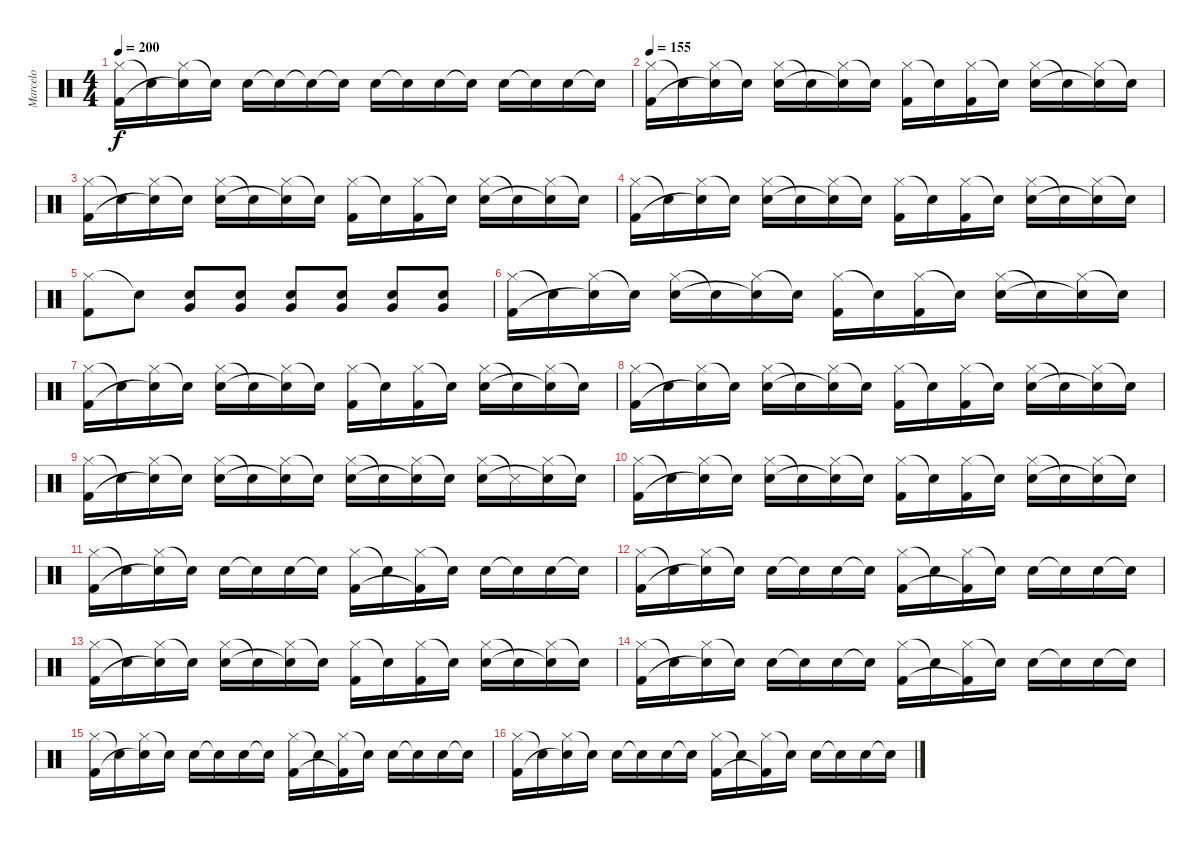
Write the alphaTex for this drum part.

\track ("Marcelo" "Marcelo") {instrument percussion}
\staff {score}
\articulation defaults
\ts (4 4)
\tempo 200
\clef neutral
\ks c
("Hi-Hat (closed)" "Kick (hit) 2").16{dy f} "Snare (hit)"{t}.16 ("Hi-Hat (closed)" "Snare (hit)"{t}).16 "Snare (hit) 2"{t}.16 "Snare (hit) 2".16 "Snare (hit)"{t}.16 "Snare (hit)"{t}.16 "Snare (hit)"{t}.16 "Snare (hit) 2".16 "Snare (hit)"{t}.16 "Snare (hit) 2".16 "Snare (hit) 2"{t}.16 "Snare (hit) 2".16 "Snare (hit)"{t}.16 "Snare (hit) 2".16 "Snare (hit)"{t}.16 |
\tempo 155
("Hi-Hat (closed)" "Kick (hit) 2").16 "Snare (hit)"{t}.16 ("Hi-Hat (closed)" "Snare (hit)"{t}).16 "Snare (hit) 2"{t}.16 ("Hi-Hat (closed)" "Snare (hit) 2").16 "Snare (hit)"{t}.16 ("Hi-Hat (closed)" "Snare (hit)"{t}).16 "Snare (hit)"{t}.16 ("Hi-Hat (closed)" "Kick (hit) 2").16 "Snare (hit)"{t}.16 ("Hi-Hat (closed)" "Kick (hit) 2").16 "Snare (hit) 2"{t}.16 ("Hi-Hat (closed)" "Snare (hit) 2").16 "Snare (hit)"{t}.16 ("Hi-Hat (closed)" "Snare (hit)"{t}).16 "Snare (hit)"{t}.16 |
("Hi-Hat (closed)" "Kick (hit) 2").16 "Snare (hit)"{t}.16 ("Hi-Hat (closed)" "Snare (hit)"{t}).16 "Snare (hit) 2"{t}.16 ("Hi-Hat (closed)" "Snare (hit) 2").16 "Snare (hit)"{t}.16 ("Hi-Hat (closed)" "Snare (hit)"{t}).16 "Snare (hit)"{t}.16 ("Hi-Hat (closed)" "Kick (hit) 2").16 "Snare (hit)"{t}.16 ("Hi-Hat (closed)" "Kick (hit) 2").16 "Snare (hit) 2"{t}.16 ("Hi-Hat (closed)" "Snare (hit) 2").16 "Snare (hit)"{t}.16 ("Hi-Hat (closed)" "Snare (hit)"{t}).16 "Snare (hit)"{t}.16 |
("Hi-Hat (closed)" "Kick (hit) 2").16 "Snare (hit)"{t}.16 ("Hi-Hat (closed)" "Snare (hit)"{t}).16 "Snare (hit) 2"{t}.16 ("Hi-Hat (closed)" "Snare (hit) 2").16 "Snare (hit)"{t}.16 ("Hi-Hat (closed)" "Snare (hit)"{t}).16 "Snare (hit)"{t}.16 ("Hi-Hat (closed)" "Kick (hit) 2").16 "Snare (hit)"{t}.16 ("Hi-Hat (closed)" "Kick (hit) 2").16 "Snare (hit) 2"{t}.16 ("Hi-Hat (closed)" "Snare (hit) 2").16 "Snare (hit)"{t}.16 ("Hi-Hat (closed)" "Snare (hit)"{t}).16 "Snare (hit)"{t}.16 |
("Hi-Hat (closed)" "Kick (hit) 2").8 "Snare (hit)"{t}.8 ("Very Low Tom (hit)" "Snare (hit) 2").8 ("Very Low Tom (hit)" "Snare (hit) 2").8 ("Very Low Tom (hit)" "Snare (hit) 2").8 ("Very Low Tom (hit)" "Snare (hit) 2").8 ("Very Low Tom (hit)" "Snare (hit) 2").8 ("Very Low Tom (hit)" "Snare (hit) 2").8 |
("Hi-Hat (closed)" "Kick (hit) 2").16 "Snare (hit)"{t}.16 ("Hi-Hat (closed)" "Snare (hit)"{t}).16 "Snare (hit) 2"{t}.16 ("Hi-Hat (closed)" "Snare (hit) 2").16 "Snare (hit)"{t}.16 ("Hi-Hat (closed)" "Snare (hit)"{t}).16 "Snare (hit)"{t}.16 ("Hi-Hat (closed)" "Kick (hit) 2").16 "Snare (hit)"{t}.16 ("Hi-Hat (closed)" "Kick (hit) 2").16 "Snare (hit) 2"{t}.16 ("Hi-Hat (closed)" "Snare (hit) 2").16 "Snare (hit)"{t}.16 ("Hi-Hat (closed)" "Snare (hit)"{t}).16 "Snare (hit)"{t}.16 |
("Hi-Hat (closed)" "Kick (hit) 2").16 "Snare (hit)"{t}.16 ("Hi-Hat (closed)" "Snare (hit)"{t}).16 "Snare (hit) 2"{t}.16 ("Hi-Hat (closed)" "Snare (hit) 2").16 "Snare (hit)"{t}.16 ("Hi-Hat (closed)" "Snare (hit)"{t}).16 "Snare (hit)"{t}.16 ("Hi-Hat (closed)" "Kick (hit) 2").16 "Snare (hit)"{t}.16 ("Hi-Hat (closed)" "Kick (hit) 2").16 "Snare (hit) 2"{t}.16 ("Hi-Hat (closed)" "Snare (hit) 2").16 "Snare (hit)"{t}.16 ("Hi-Hat (closed)" "Snare (hit)"{t}).16 "Snare (hit)"{t}.16 |
("Hi-Hat (closed)" "Kick (hit) 2").16 "Snare (hit)"{t}.16 ("Hi-Hat (closed)" "Snare (hit)"{t}).16 "Snare (hit) 2"{t}.16 ("Hi-Hat (closed)" "Snare (hit) 2").16 "Snare (hit)"{t}.16 ("Hi-Hat (closed)" "Snare (hit)"{t}).16 "Snare (hit)"{t}.16 ("Hi-Hat (closed)" "Kick (hit) 2").16 "Snare (hit)"{t}.16 ("Hi-Hat (closed)" "Kick (hit) 2").16 "Snare (hit) 2"{t}.16 ("Hi-Hat (closed)" "Snare (hit) 2").16 "Snare (hit)"{t}.16 ("Hi-Hat (closed)" "Snare (hit)"{t}).16 "Snare (hit)"{t}.16 |
("Hi-Hat (closed)" "Kick (hit) 2").16 "Snare (hit)"{t}.16 ("Hi-Hat (closed)" "Snare (hit)"{t}).16 "Snare (hit) 2"{t}.16 ("Hi-Hat (closed)" "Snare (hit) 2").16 "Snare (hit)"{t}.16 ("Hi-Hat (closed)" "Snare (hit)"{t}).16 "Snare (hit)"{t}.16 ("Hi-Hat (closed)" "Snare (hit) 2").16 "Snare (hit)"{t}.16 ("Hi-Hat (closed)" "Snare (hit) 2"{t}).16 "Snare (hit) 2"{t}.16 ("Hi-Hat (closed)" "Snare (hit) 2").16 "Metronome (hit)"{t}.16 ("Hi-Hat (closed)" "Snare (hit) 2"{t}).16 "Snare (hit)"{t}.16 |
("Hi-Hat (closed)" "Kick (hit) 2").16 "Snare (hit)"{t}.16 ("Hi-Hat (closed)" "Snare (hit)"{t}).16 "Snare (hit) 2"{t}.16 ("Hi-Hat (closed)" "Snare (hit) 2").16 "Snare (hit)"{t}.16 ("Hi-Hat (closed)" "Snare (hit)"{t}).16 "Snare (hit)"{t}.16 ("Hi-Hat (closed)" "Kick (hit) 2").16 "Snare (hit)"{t}.16 ("Hi-Hat (closed)" "Kick (hit) 2").16 "Snare (hit) 2"{t}.16 ("Hi-Hat (closed)" "Snare (hit) 2").16 "Snare (hit)"{t}.16 ("Hi-Hat (closed)" "Snare (hit)"{t}).16 "Snare (hit)"{t}.16 |
("Hi-Hat (closed)" "Kick (hit) 2").16 "Snare (hit)"{t}.16 ("Hi-Hat (closed)" "Snare (hit)"{t}).16 "Snare (hit) 2"{t}.16 "Snare (hit) 2".16 "Snare (hit)"{t}.16 "Snare (hit) 2".16 "Snare (hit)"{t}.16 ("Hi-Hat (closed)" "Kick (hit) 2").16 "Snare (hit)"{t}.16 ("Hi-Hat (closed)" "Kick (hit) 2"{t}).16 "Snare (hit) 2"{t}.16 "Snare (hit) 2".16 "Snare (hit)"{t}.16 "Snare (hit) 2".16 "Snare (hit)"{t}.16 |
("Hi-Hat (closed)" "Kick (hit) 2").16 "Snare (hit)"{t}.16 ("Hi-Hat (closed)" "Snare (hit)"{t}).16 "Snare (hit) 2"{t}.16 "Snare (hit) 2".16 "Snare (hit)"{t}.16 "Snare (hit) 2".16 "Snare (hit)"{t}.16 ("Hi-Hat (closed)" "Kick (hit) 2").16 "Snare (hit)"{t}.16 ("Hi-Hat (closed)" "Kick (hit) 2"{t}).16 "Snare (hit) 2"{t}.16 "Snare (hit) 2".16 "Snare (hit)"{t}.16 "Snare (hit) 2".16 "Snare (hit)"{t}.16 |
("Hi-Hat (closed)" "Kick (hit) 2").16 "Snare (hit)"{t}.16 ("Hi-Hat (closed)" "Snare (hit)"{t}).16 "Snare (hit) 2"{t}.16 ("Hi-Hat (closed)" "Snare (hit) 2").16 "Snare (hit)"{t}.16 ("Hi-Hat (closed)" "Snare (hit)"{t}).16 "Snare (hit)"{t}.16 ("Hi-Hat (closed)" "Kick (hit) 2").16 "Snare (hit)"{t}.16 ("Hi-Hat (closed)" "Kick (hit) 2").16 "Snare (hit) 2"{t}.16 ("Hi-Hat (closed)" "Snare (hit) 2").16 "Snare (hit)"{t}.16 ("Hi-Hat (closed)" "Snare (hit)"{t}).16 "Snare (hit)"{t}.16 |
("Hi-Hat (closed)" "Kick (hit) 2").16 "Snare (hit)"{t}.16 ("Hi-Hat (closed)" "Snare (hit)"{t}).16 "Snare (hit) 2"{t}.16 "Snare (hit) 2".16 "Snare (hit)"{t}.16 "Snare (hit) 2".16 "Snare (hit)"{t}.16 ("Hi-Hat (closed)" "Kick (hit) 2").16 "Snare (hit)"{t}.16 ("Hi-Hat (closed)" "Kick (hit) 2"{t}).16 "Snare (hit) 2"{t}.16 "Snare (hit) 2".16 "Snare (hit)"{t}.16 "Snare (hit) 2".16 "Snare (hit)"{t}.16 |
("Hi-Hat (closed)" "Kick (hit) 2").16 "Snare (hit)"{t}.16 ("Hi-Hat (closed)" "Snare (hit)"{t}).16 "Snare (hit) 2"{t}.16 "Snare (hit) 2".16 "Snare (hit)"{t}.16 "Snare (hit) 2".16 "Snare (hit)"{t}.16 ("Hi-Hat (closed)" "Kick (hit) 2").16 "Snare (hit)"{t}.16 ("Hi-Hat (closed)" "Kick (hit) 2"{t}).16 "Snare (hit) 2"{t}.16 "Snare (hit) 2".16 "Snare (hit)"{t}.16 "Snare (hit) 2".16 "Snare (hit)"{t}.16 |
("Hi-Hat (closed)" "Kick (hit) 2").16 "Snare (hit)"{t}.16 ("Hi-Hat (closed)" "Snare (hit)"{t}).16 "Snare (hit) 2"{t}.16 "Snare (hit) 2".16 "Snare (hit)"{t}.16 "Snare (hit) 2".16 "Snare (hit)"{t}.16 ("Hi-Hat (closed)" "Kick (hit) 2").16 "Snare (hit)"{t}.16 ("Hi-Hat (closed)" "Kick (hit) 2"{t}).16 "Snare (hit) 2"{t}.16 "Snare (hit) 2".16 "Snare (hit)"{t}.16 "Snare (hit) 2".16 "Snare (hit)"{t}.16
